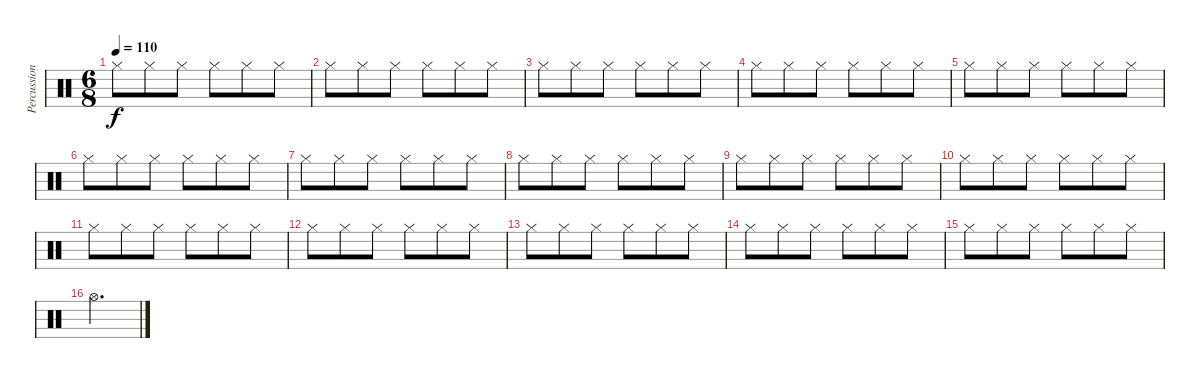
\track ("Percussion" "Percussion") {instrument percussion}
\staff {score}
\articulation defaults
\ts (6 8)
\tempo 110
\clef neutral
\ks c "Hi-Hat (closed)".8{dy f} "Hi-Hat (closed)".8 "Hi-Hat (closed)".8 "Hi-Hat (closed)".8 "Hi-Hat (closed)".8 "Hi-Hat (closed)".8
|
"Hi-Hat (closed)".8 "Hi-Hat (closed)".8 "Hi-Hat (closed)".8 "Hi-Hat (closed)".8 "Hi-Hat (closed)".8 "Hi-Hat (closed)".8 |
"Hi-Hat (closed)".8 "Hi-Hat (closed)".8 "Hi-Hat (closed)".8 "Hi-Hat (closed)".8 "Hi-Hat (closed)".8 "Hi-Hat (closed)".8 |
"Hi-Hat (closed)".8 "Hi-Hat (closed)".8 "Hi-Hat (closed)".8 "Hi-Hat (closed)".8 "Hi-Hat (closed)".8 "Hi-Hat (closed)".8 |
"Hi-Hat (closed)".8 "Hi-Hat (closed)".8 "Hi-Hat (closed)".8 "Hi-Hat (closed)".8 "Hi-Hat (closed)".8 "Hi-Hat (closed)".8 |
"Hi-Hat (closed)".8 "Hi-Hat (closed)".8 "Hi-Hat (closed)".8 "Hi-Hat (closed)".8 "Hi-Hat (closed)".8 "Hi-Hat (closed)".8 |
"Hi-Hat (closed)".8 "Hi-Hat (closed)".8 "Hi-Hat (closed)".8 "Hi-Hat (closed)".8 "Hi-Hat (closed)".8 "Hi-Hat (closed)".8 |
"Hi-Hat (closed)".8 "Hi-Hat (closed)".8 "Hi-Hat (closed)".8 "Hi-Hat (closed)".8 "Hi-Hat (closed)".8 "Hi-Hat (closed)".8 |
"Hi-Hat (closed)".8 "Hi-Hat (closed)".8 "Hi-Hat (closed)".8 "Hi-Hat (closed)".8 "Hi-Hat (closed)".8 "Hi-Hat (closed)".8 |
"Hi-Hat (closed)".8 "Hi-Hat (closed)".8 "Hi-Hat (closed)".8 "Hi-Hat (closed)".8 "Hi-Hat (closed)".8 "Hi-Hat (closed)".8 |
"Hi-Hat (closed)".8 "Hi-Hat (closed)".8 "Hi-Hat (closed)".8 "Hi-Hat (closed)".8 "Hi-Hat (closed)".8 "Hi-Hat (closed)".8 |
"Hi-Hat (closed)".8 "Hi-Hat (closed)".8 "Hi-Hat (closed)".8 "Hi-Hat (closed)".8 "Hi-Hat (closed)".8 "Hi-Hat (closed)".8 |
"Hi-Hat (closed)".8 "Hi-Hat (closed)".8 "Hi-Hat (closed)".8 "Hi-Hat (closed)".8 "Hi-Hat (closed)".8 "Hi-Hat (closed)".8 |
"Hi-Hat (closed)".8 "Hi-Hat (closed)".8 "Hi-Hat (closed)".8 "Hi-Hat (closed)".8 "Hi-Hat (closed)".8 "Hi-Hat (closed)".8 |
"Hi-Hat (closed)".8 "Hi-Hat (closed)".8 "Hi-Hat (closed)".8 "Hi-Hat (closed)".8 "Hi-Hat (closed)".8 "Hi-Hat (closed)".8 |
"Hi-Hat (open)".2{d}
